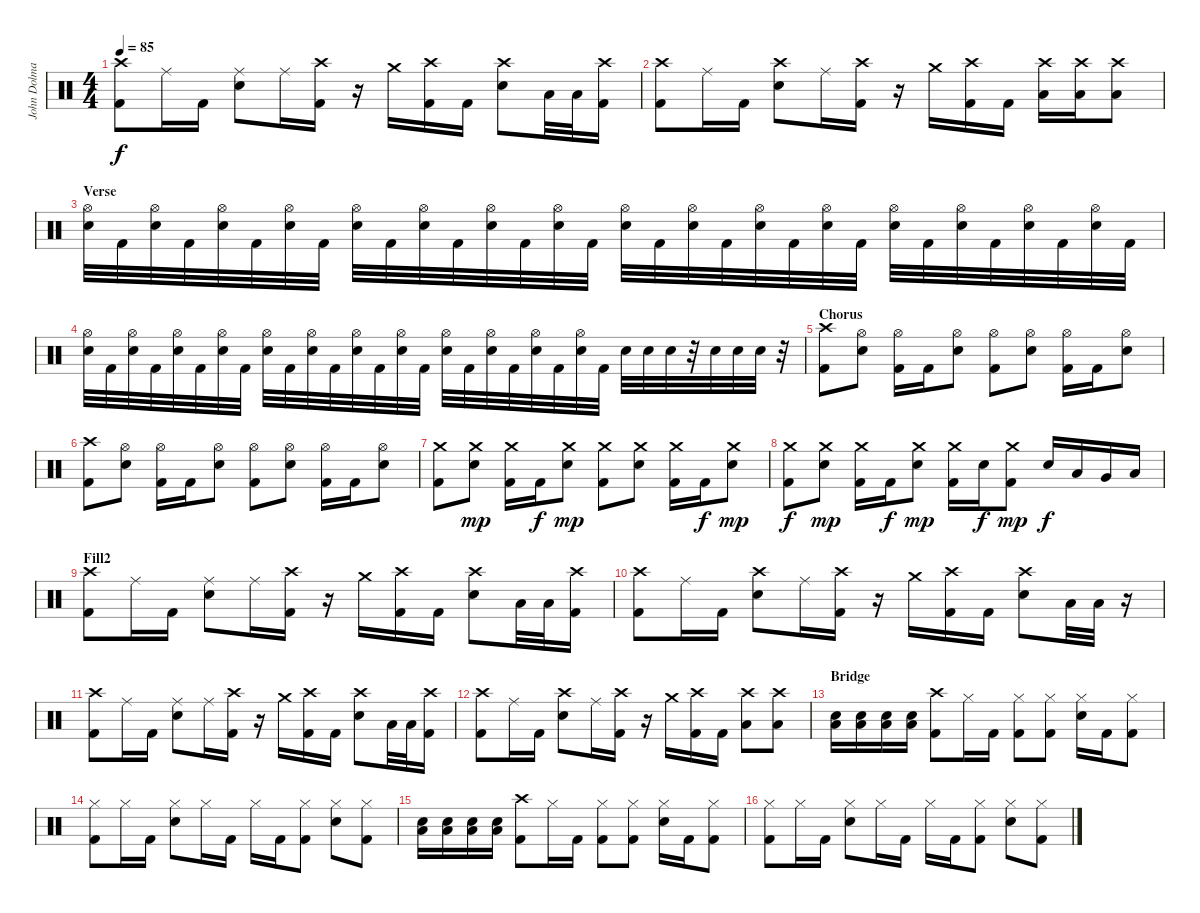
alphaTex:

\track ("John Dolmayan" "John Dolma") {instrument percussion}
\staff {score}
\articulation defaults
\ts (4 4)
\tempo 85
\clef neutral
\ks c
("Crash high (hit)" "Kick (hit) 2").8{dy f} "Ride (middle)".16 "Kick (hit) 2".16 ("Ride (middle)" "Snare (hit) 2").8 "Ride (middle)".16 ("Crash high (hit)" "Kick (hit) 2").16 r.16 "Crash medium (hit)".16 ("Crash high (hit)" "Kick (hit) 2").16 "Kick (hit) 2".16 ("Crash high (hit)" "Snare (hit) 2").8 "Low Tom (hit)".32 "Low Tom (hit)".32 ("Crash high (hit)" "Kick (hit) 2").16 |
("Crash high (hit)" "Kick (hit) 2").8 "Ride (middle)".16 "Kick (hit) 2".16 ("Crash high (hit)" "Snare (hit) 2").8 "Ride (middle)".16 ("Crash high (hit)" "Kick (hit) 2").16 r.16 "Crash medium (hit)".16 ("Crash high (hit)" "Kick (hit) 2").16 "Kick (hit) 2".16 ("Crash high (hit)" "Low Floor Tom (hit)").16 ("Crash high (hit)" "Low Floor Tom (hit)").16 ("Crash high (hit)" "Low Floor Tom (hit)").8 |
\section ("" "Verse")
("Hi-Hat (open)" "Snare (hit) 2").32 "Kick (hit) 2".32 ("Hi-Hat (open)" "Snare (hit) 2").32 "Kick (hit) 2".32 ("Hi-Hat (open)" "Snare (hit) 2").32 "Kick (hit) 2".32 ("Hi-Hat (open)" "Snare (hit) 2").32 "Kick (hit) 2".32 ("Hi-Hat (open)" "Snare (hit) 2").32 "Kick (hit) 2".32 ("Hi-Hat (open)" "Snare (hit) 2").32 "Kick (hit) 2".32 ("Hi-Hat (open)" "Snare (hit) 2").32 "Kick (hit) 2".32 ("Hi-Hat (open)" "Snare (hit) 2").32 "Kick (hit) 2".32 ("Hi-Hat (open)" "Snare (hit) 2").32 "Kick (hit) 2".32 ("Hi-Hat (open)" "Snare (hit) 2").32 "Kick (hit) 2".32 ("Hi-Hat (open)" "Snare (hit) 2").32 "Kick (hit) 2".32 ("Hi-Hat (open)" "Snare (hit) 2").32 "Kick (hit) 2".32 ("Hi-Hat (open)" "Snare (hit) 2").32 "Kick (hit) 2".32 ("Hi-Hat (open)" "Snare (hit) 2").32 "Kick (hit) 2".32 ("Hi-Hat (open)" "Snare (hit) 2").32 "Kick (hit) 2".32 ("Hi-Hat (open)" "Snare (hit) 2").32 "Kick (hit) 2".32 |
("Hi-Hat (open)" "Snare (hit) 2").32 "Kick (hit) 2".32 ("Hi-Hat (open)" "Snare (hit) 2").32 "Kick (hit) 2".32 ("Hi-Hat (open)" "Snare (hit) 2").32 "Kick (hit) 2".32 ("Hi-Hat (open)" "Snare (hit) 2").32 "Kick (hit) 2".32 ("Hi-Hat (open)" "Snare (hit) 2").32 "Kick (hit) 2".32 ("Hi-Hat (open)" "Snare (hit) 2").32 "Kick (hit) 2".32 ("Hi-Hat (open)" "Snare (hit) 2").32 "Kick (hit) 2".32 ("Hi-Hat (open)" "Snare (hit) 2").32 "Kick (hit) 2".32 ("Hi-Hat (open)" "Snare (hit) 2").32 "Kick (hit) 2".32 ("Hi-Hat (open)" "Snare (hit) 2").32 "Kick (hit) 2".32 ("Hi-Hat (open)" "Snare (hit) 2").32 "Kick (hit) 2".32 ("Hi-Hat (open)" "Snare (hit) 2").32 "Kick (hit) 2".32 "Snare (hit) 2".32 "Snare (hit) 2".32 "Snare (hit) 2".32 r.32 "Snare (hit) 2".32 "Snare (hit) 2".32 "Snare (hit) 2".32 r.32 |
\section ("" "Chorus")
("Crash high (hit)" "Kick (hit) 2").8 ("Hi-Hat (open)" "Snare (hit) 2").8 ("Hi-Hat (open)" "Kick (hit) 2").16 "Kick (hit) 2".16 ("Hi-Hat (open)" "Snare (hit) 2").8 ("Hi-Hat (open)" "Kick (hit) 2").8 ("Hi-Hat (open)" "Snare (hit) 2").8 ("Hi-Hat (open)" "Kick (hit) 2").16 "Kick (hit) 2".16 ("Hi-Hat (open)" "Snare (hit) 2").8 |
("Crash high (hit)" "Kick (hit) 2").8 ("Hi-Hat (open)" "Snare (hit) 2").8 ("Hi-Hat (open)" "Kick (hit) 2").16 "Kick (hit) 2".16 ("Hi-Hat (open)" "Snare (hit) 2").8 ("Hi-Hat (open)" "Kick (hit) 2").8 ("Hi-Hat (open)" "Snare (hit) 2").8 ("Hi-Hat (open)" "Kick (hit) 2").16 "Kick (hit) 2".16 ("Hi-Hat (open)" "Snare (hit) 2").8 |
("Crash medium (hit)" "Kick (hit) 2").8 ("Crash medium (hit)" "Snare (hit) 2").8{dy mp} ("Crash medium (hit)" "Kick (hit) 2").16 "Kick (hit) 2".16{dy f} ("Crash medium (hit)" "Snare (hit) 2").8{dy mp} ("Crash medium (hit)" "Kick (hit) 2").8 ("Crash medium (hit)" "Snare (hit) 2").8 ("Crash medium (hit)" "Kick (hit) 2").16 "Kick (hit) 2".16{dy f} ("Crash medium (hit)" "Snare (hit) 2").8{dy mp} |
("Crash medium (hit)" "Kick (hit) 2").8{dy f} ("Crash medium (hit)" "Snare (hit) 2").8{dy mp} ("Crash medium (hit)" "Kick (hit) 2").16 "Kick (hit) 2".16{dy f} ("Crash medium (hit)" "Snare (hit) 2").8{dy mp} ("Crash medium (hit)" "Kick (hit) 2").16 "Snare (hit) 2".16{dy f} ("Crash medium (hit)" "Kick (hit) 2").8{dy mp} "Snare (hit) 2".16{dy f} "Low Tom (hit)".16 "Very Low Tom (hit)".16 "Low Floor Tom (hit)".16 |
\section ("" "Fill2")
("Crash high (hit)" "Kick (hit) 2").8 "Ride (middle)".16 "Kick (hit) 2".16 ("Ride (middle)" "Snare (hit) 2").8 "Ride (middle)".16 ("Crash high (hit)" "Kick (hit) 2").16 r.16 "Crash medium (hit)".16 ("Crash high (hit)" "Kick (hit) 2").16 "Kick (hit) 2".16 ("Crash high (hit)" "Snare (hit) 2").8 "Low Tom (hit)".32 "Low Tom (hit)".32 ("Crash high (hit)" "Kick (hit) 2").16 |
("Crash high (hit)" "Kick (hit) 2").8 "Ride (middle)".16 "Kick (hit) 2".16 ("Crash high (hit)" "Snare (hit) 2").8 "Ride (middle)".16 ("Crash high (hit)" "Kick (hit) 2").16 r.16 "Crash medium (hit)".16 ("Crash high (hit)" "Kick (hit) 2").16 "Kick (hit) 2".16 ("Crash high (hit)" "Snare (hit) 2").8 "Low Floor Tom (hit)".32 "Low Floor Tom (hit)".32 r.16 |
("Crash high (hit)" "Kick (hit) 2").8 "Ride (middle)".16 "Kick (hit) 2".16 ("Ride (middle)" "Snare (hit) 2").8 "Ride (middle)".16 ("Crash high (hit)" "Kick (hit) 2").16 r.16 "Crash medium (hit)".16 ("Crash high (hit)" "Kick (hit) 2").16 "Kick (hit) 2".16 ("Crash high (hit)" "Snare (hit) 2").8 "Low Tom (hit)".32 "Low Tom (hit)".32 ("Crash high (hit)" "Kick (hit) 2").16 |
("Crash high (hit)" "Kick (hit) 2").8 "Ride (middle)".16 "Kick (hit) 2".16 ("Crash high (hit)" "Snare (hit) 2").8 "Ride (middle)".16 ("Crash high (hit)" "Kick (hit) 2").16 r.16 "Crash medium (hit)".16 ("Crash high (hit)" "Kick (hit) 2").16 "Kick (hit) 2".16 ("Crash high (hit)" "Low Floor Tom (hit)").8 ("Crash high (hit)" "Low Floor Tom (hit)").8 |
\section ("" "Bridge")
("Low Floor Tom (hit)" "Snare (hit) 2").16 ("Low Floor Tom (hit)" "Snare (hit) 2").16 ("Low Floor Tom (hit)" "Snare (hit) 2").16 ("Low Floor Tom (hit)" "Snare (hit) 2").16 ("Crash high (hit)" "Kick (hit) 2").8 "Hi-Hat (closed)".16 "Kick (hit) 2".16 ("Hi-Hat (closed)" "Kick (hit) 2").8 ("Hi-Hat (closed)" "Kick (hit) 2").8 ("Hi-Hat (closed)" "Snare (hit) 2").16 "Kick (hit) 2".16 ("Hi-Hat (closed)" "Kick (hit) 2").8 |
("Hi-Hat (closed)" "Kick (hit) 2").8 "Hi-Hat (closed)".16 "Kick (hit) 2".16 ("Hi-Hat (closed)" "Snare (hit) 2").8 "Hi-Hat (closed)".16 "Kick (hit) 2".16 "Hi-Hat (closed)".16 "Kick (hit) 2".16 ("Hi-Hat (closed)" "Kick (hit) 2").8 ("Hi-Hat (closed)" "Snare (hit) 2").8 ("Hi-Hat (closed)" "Kick (hit) 2").8 |
("Low Floor Tom (hit)" "Snare (hit) 2").16 ("Low Floor Tom (hit)" "Snare (hit) 2").16 ("Low Floor Tom (hit)" "Snare (hit) 2").16 ("Low Floor Tom (hit)" "Snare (hit) 2").16 ("Crash high (hit)" "Kick (hit) 2").8 "Hi-Hat (closed)".16 "Kick (hit) 2".16 ("Hi-Hat (closed)" "Kick (hit) 2").8 ("Hi-Hat (closed)" "Kick (hit) 2").8 ("Hi-Hat (closed)" "Snare (hit) 2").16 "Kick (hit) 2".16 ("Hi-Hat (closed)" "Kick (hit) 2").8 |
("Hi-Hat (closed)" "Kick (hit) 2").8 "Hi-Hat (closed)".16 "Kick (hit) 2".16 ("Hi-Hat (closed)" "Snare (hit) 2").8 "Hi-Hat (closed)".16 "Kick (hit) 2".16 "Hi-Hat (closed)".16 "Kick (hit) 2".16 ("Hi-Hat (closed)" "Kick (hit) 2").8 ("Hi-Hat (closed)" "Snare (hit) 2").8 ("Hi-Hat (closed)" "Kick (hit) 2").8
